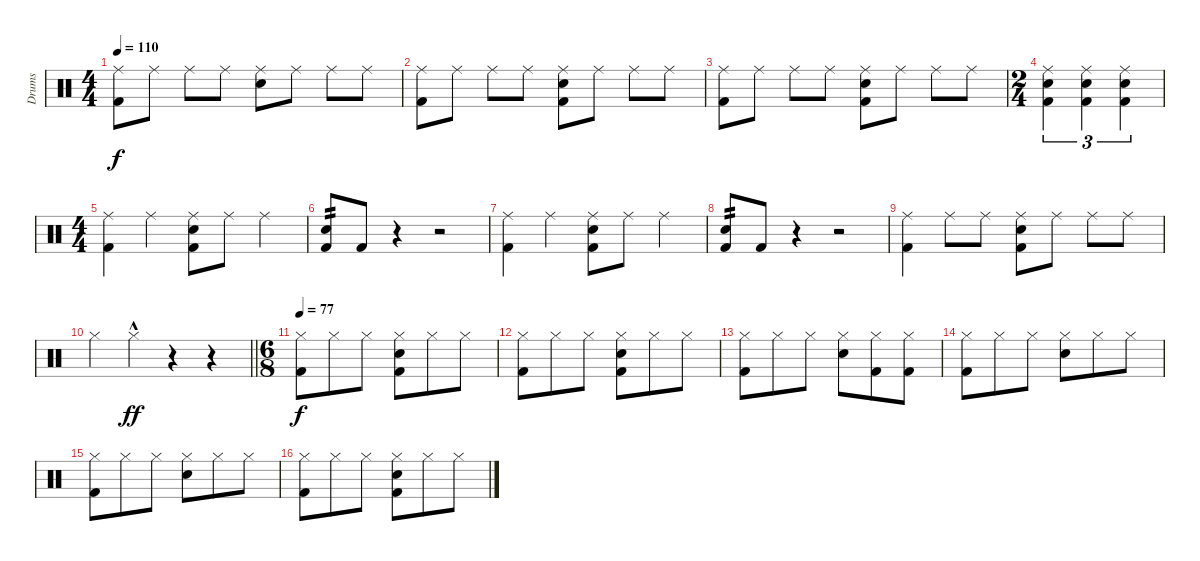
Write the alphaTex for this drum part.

\track ("Drums" "Drums") {instrument percussion}
\staff {score}
\articulation defaults
\ts (4 4)
\tempo 110
\clef neutral
\ks c
("Ride (middle)" "Kick (hit) 2").8{dy f} "Ride (middle)".8 "Ride (middle)".8 "Ride (middle)".8 ("Ride (middle)" "Snare (hit) 2").8 "Ride (middle)".8 "Ride (middle)".8 "Ride (middle)".8 |
("Ride (middle)" "Kick (hit) 2").8 "Ride (middle)".8 "Ride (middle)".8 "Ride (middle)".8 ("Ride (middle)" "Snare (hit) 2" "Kick (hit) 2").8 "Ride (middle)".8 "Ride (middle)".8 "Ride (middle)".8 |
("Ride (middle)" "Kick (hit) 2").8 "Ride (middle)".8 "Ride (middle)".8 "Ride (middle)".8 ("Ride (middle)" "Snare (hit) 2" "Kick (hit) 2").8 "Ride (middle)".8 "Ride (middle)".8 "Ride (middle)".8 |
\ts (2 4)
("Ride (middle)" "Kick (hit) 2" "Snare (hit) 2").4{tu (3 2)} ("Ride (middle)" "Kick (hit) 2" "Snare (hit) 2").4{tu (3 2)} ("Ride (middle)" "Kick (hit) 2" "Snare (hit) 2").4{tu (3 2)} |
\ts (4 4)
("Ride (middle)" "Kick (hit) 2").4 "Ride (middle)".4 ("Ride (middle)" "Snare (hit) 2" "Kick (hit) 2").8 "Ride (middle)".8 "Ride (middle)".4 |
("Snare (hit) 2" "Kick (hit) 2").8{tp 2} "Kick (hit) 2".8 r.4 r.2 |
("Ride (middle)" "Kick (hit) 2").4 "Ride (middle)".4 ("Ride (middle)" "Snare (hit) 2" "Kick (hit) 2").8 "Ride (middle)".8 "Ride (middle)".4 |
("Snare (hit) 2" "Kick (hit) 2").8{tp 2} "Kick (hit) 2".8 r.4 r.2 |
("Ride (middle)" "Kick (hit) 2").4 "Ride (middle)".8 "Ride (middle)".8 ("Ride (middle)" "Snare (hit) 2" "Kick (hit) 2").8 "Ride (middle)".8 "Ride (middle)".8 "Ride (middle)".8 |
\barLineRight lightlight "Hi-Hat (closed)".4 "Hi-Hat (closed)"{hac}.4{dy ff}
r.4 r.4 |
\ts (6 8)
\tempo 77
("Hi-Hat (closed)" "Kick (hit) 2").8{dy f} "Hi-Hat (closed)".8 "Hi-Hat (closed)".8 ("Hi-Hat (closed)" "Snare (hit) 2" "Kick (hit) 2").8 "Hi-Hat (closed)".8 "Hi-Hat (closed)".8 |
("Hi-Hat (closed)" "Kick (hit) 2").8 "Hi-Hat (closed)".8 "Hi-Hat (closed)".8 ("Hi-Hat (closed)" "Snare (hit) 2" "Kick (hit) 2").8 "Hi-Hat (closed)".8 "Hi-Hat (closed)".8 |
("Hi-Hat (closed)" "Kick (hit) 2").8 "Hi-Hat (closed)".8 "Hi-Hat (closed)".8 ("Hi-Hat (closed)" "Snare (hit) 2").8 ("Hi-Hat (closed)" "Kick (hit) 2").8 ("Hi-Hat (closed)" "Kick (hit) 2").8 |
("Hi-Hat (closed)" "Kick (hit) 2").8 "Hi-Hat (closed)".8 "Hi-Hat (closed)".8 ("Hi-Hat (closed)" "Snare (hit) 2").8 "Hi-Hat (closed)".8 "Hi-Hat (closed)".8 |
("Hi-Hat (closed)" "Kick (hit) 2").8 "Hi-Hat (closed)".8 "Hi-Hat (closed)".8 ("Hi-Hat (closed)" "Snare (hit) 2").8 "Hi-Hat (closed)".8 "Hi-Hat (closed)".8 |
("Hi-Hat (closed)" "Kick (hit) 2").8 "Hi-Hat (closed)".8 "Hi-Hat (closed)".8 ("Hi-Hat (closed)" "Snare (hit) 2" "Kick (hit) 2").8 "Hi-Hat (closed)".8 "Hi-Hat (closed)".8
